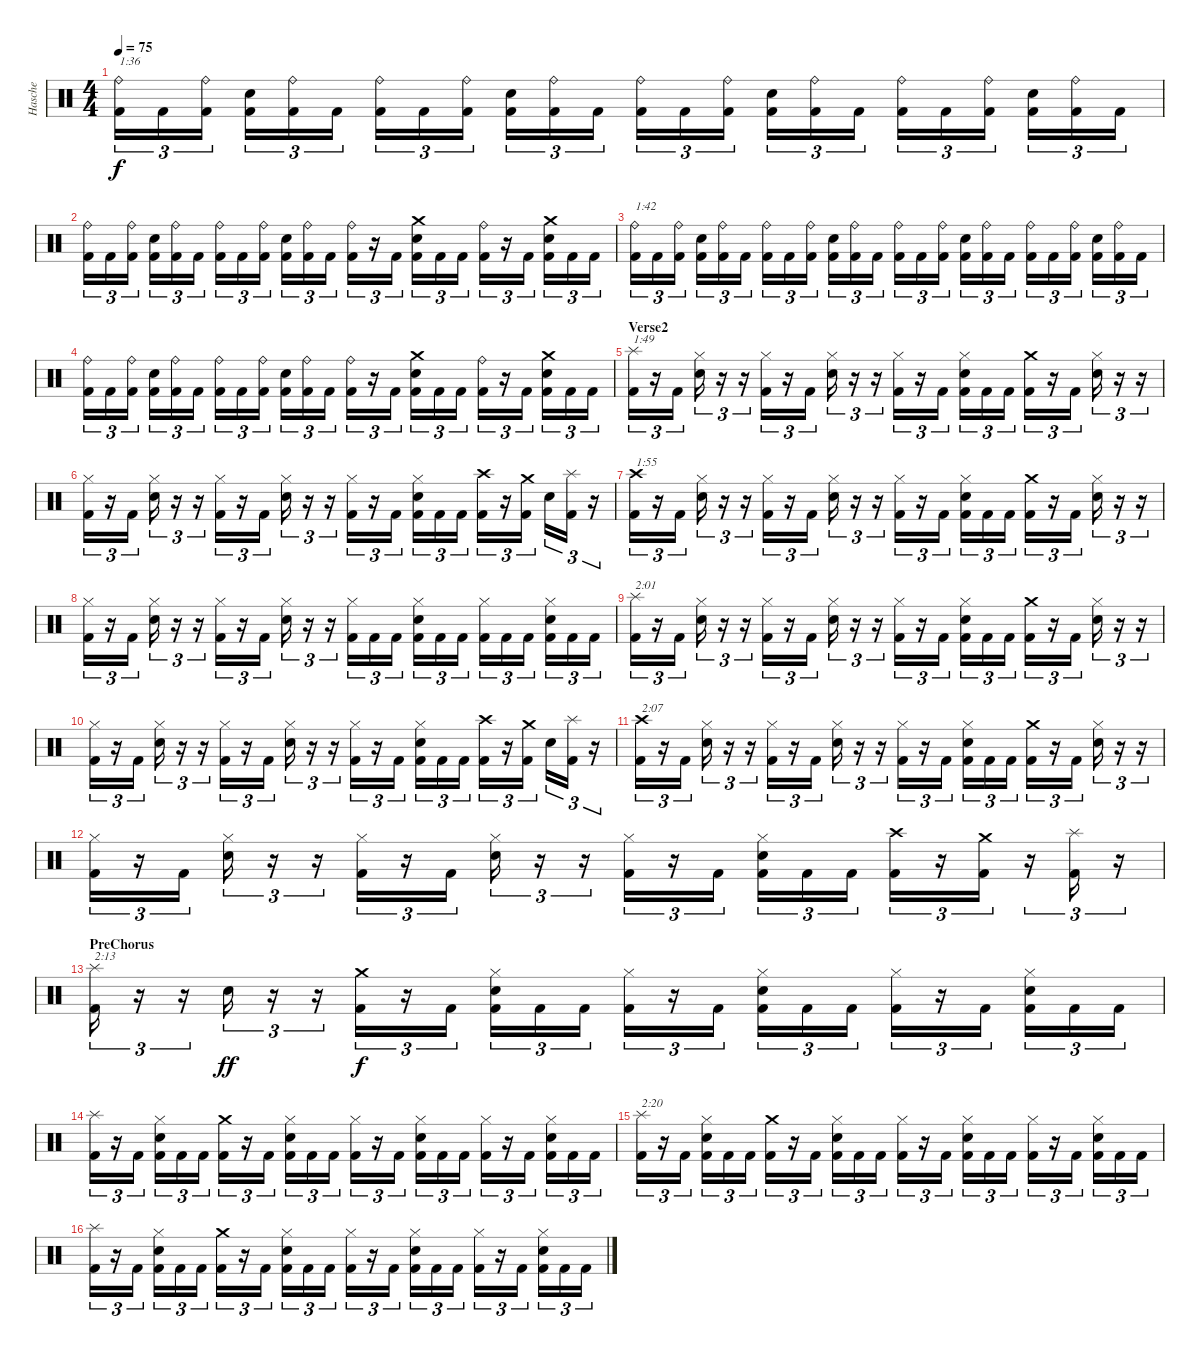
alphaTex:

\track ("Hasche" "Hasche") {instrument percussion}
\staff {score}
\articulation defaults
\ts (4 4)
\tempo 75
\clef neutral
\ks c
("Ride (bell)" "Kick (hit) 2").16{tu (3 2) txt "1:36" dy f} "Kick (hit) 2".16{tu (3 2)} ("Ride (bell)" "Kick (hit) 2").16{tu (3 2)} ("Snare (hit) 2" "Kick (hit) 2").16{tu (3 2)} ("Ride (bell)" "Kick (hit) 2").16{tu (3 2)} "Kick (hit) 2".16{tu (3 2)} ("Ride (bell)" "Kick (hit) 2").16{tu (3 2)} "Kick (hit) 2".16{tu (3 2)} ("Ride (bell)" "Kick (hit) 2").16{tu (3 2)} ("Snare (hit) 2" "Kick (hit) 2").16{tu (3 2)} ("Ride (bell)" "Kick (hit) 2").16{tu (3 2)} "Kick (hit) 2".16{tu (3 2)} ("Ride (bell)" "Kick (hit) 2").16{tu (3 2)} "Kick (hit) 2".16{tu (3 2)} ("Ride (bell)" "Kick (hit) 2").16{tu (3 2)} ("Snare (hit) 2" "Kick (hit) 2").16{tu (3 2)} ("Ride (bell)" "Kick (hit) 2").16{tu (3 2)} "Kick (hit) 2".16{tu (3 2)} ("Ride (bell)" "Kick (hit) 2").16{tu (3 2)} "Kick (hit) 2".16{tu (3 2)} ("Ride (bell)" "Kick (hit) 2").16{tu (3 2)} ("Snare (hit) 2" "Kick (hit) 2").16{tu (3 2)} ("Ride (bell)" "Kick (hit) 2").16{tu (3 2)} "Kick (hit) 2".16{tu (3 2)} |
("Ride (bell)" "Kick (hit) 2").16{tu (3 2)} "Kick (hit) 2".16{tu (3 2)} ("Ride (bell)" "Kick (hit) 2").16{tu (3 2)} ("Snare (hit) 2" "Kick (hit) 2").16{tu (3 2)} ("Ride (bell)" "Kick (hit) 2").16{tu (3 2)} "Kick (hit) 2".16{tu (3 2)} ("Ride (bell)" "Kick (hit) 2").16{tu (3 2)} "Kick (hit) 2".16{tu (3 2)} ("Ride (bell)" "Kick (hit) 2").16{tu (3 2)} ("Snare (hit) 2" "Kick (hit) 2").16{tu (3 2)} ("Ride (bell)" "Kick (hit) 2").16{tu (3 2)} "Kick (hit) 2".16{tu (3 2)} ("Ride (bell)" "Kick (hit) 2").16{tu (3 2)} r.16{tu (3 2)} "Kick (hit) 2".16{tu (3 2)} ("Crash medium (hit)" "Snare (hit) 2" "Kick (hit) 2").16{tu (3 2)} "Kick (hit) 2".16{tu (3 2)} "Kick (hit) 2".16{tu (3 2)} ("Ride (bell)" "Kick (hit) 2").16{tu (3 2)} r.16{tu (3 2)} "Kick (hit) 2".16{tu (3 2)} ("Crash medium (hit)" "Snare (hit) 2" "Kick (hit) 2").16{tu (3 2)} "Kick (hit) 2".16{tu (3 2)} "Kick (hit) 2".16{tu (3 2)} |
("Ride (bell)" "Kick (hit) 2").16{tu (3 2) txt "1:42"} "Kick (hit) 2".16{tu (3 2)} ("Ride (bell)" "Kick (hit) 2").16{tu (3 2)} ("Snare (hit) 2" "Kick (hit) 2").16{tu (3 2)} ("Ride (bell)" "Kick (hit) 2").16{tu (3 2)} "Kick (hit) 2".16{tu (3 2)} ("Ride (bell)" "Kick (hit) 2").16{tu (3 2)} "Kick (hit) 2".16{tu (3 2)} ("Ride (bell)" "Kick (hit) 2").16{tu (3 2)} ("Snare (hit) 2" "Kick (hit) 2").16{tu (3 2)} ("Ride (bell)" "Kick (hit) 2").16{tu (3 2)} "Kick (hit) 2".16{tu (3 2)} ("Ride (bell)" "Kick (hit) 2").16{tu (3 2)} "Kick (hit) 2".16{tu (3 2)} ("Ride (bell)" "Kick (hit) 2").16{tu (3 2)} ("Snare (hit) 2" "Kick (hit) 2").16{tu (3 2)} ("Ride (bell)" "Kick (hit) 2").16{tu (3 2)} "Kick (hit) 2".16{tu (3 2)} ("Ride (bell)" "Kick (hit) 2").16{tu (3 2)} "Kick (hit) 2".16{tu (3 2)} ("Ride (bell)" "Kick (hit) 2").16{tu (3 2)} ("Snare (hit) 2" "Kick (hit) 2").16{tu (3 2)} ("Ride (bell)" "Kick (hit) 2").16{tu (3 2)} "Kick (hit) 2".16{tu (3 2)} |
("Ride (bell)" "Kick (hit) 2").16{tu (3 2)} "Kick (hit) 2".16{tu (3 2)} ("Ride (bell)" "Kick (hit) 2").16{tu (3 2)} ("Snare (hit) 2" "Kick (hit) 2").16{tu (3 2)} ("Ride (bell)" "Kick (hit) 2").16{tu (3 2)} "Kick (hit) 2".16{tu (3 2)} ("Ride (bell)" "Kick (hit) 2").16{tu (3 2)} "Kick (hit) 2".16{tu (3 2)} ("Ride (bell)" "Kick (hit) 2").16{tu (3 2)} ("Snare (hit) 2" "Kick (hit) 2").16{tu (3 2)} ("Ride (bell)" "Kick (hit) 2").16{tu (3 2)} "Kick (hit) 2".16{tu (3 2)} ("Ride (bell)" "Kick (hit) 2").16{tu (3 2)} r.16{tu (3 2)} "Kick (hit) 2".16{tu (3 2)} ("Crash medium (hit)" "Snare (hit) 2" "Kick (hit) 2").16{tu (3 2)} "Kick (hit) 2".16{tu (3 2)} "Kick (hit) 2".16{tu (3 2)} ("Ride (bell)" "Kick (hit) 2").16{tu (3 2)} r.16{tu (3 2)} "Kick (hit) 2".16{tu (3 2)} ("Crash medium (hit)" "Snare (hit) 2" "Kick (hit) 2").16{tu (3 2)} "Kick (hit) 2".16{tu (3 2)} "Kick (hit) 2".16{tu (3 2)} |
\section ("" "Verse2")
("Splash (hit)" "Kick (hit) 2").16{tu (3 2) txt "1:49"} r.16{tu (3 2)} "Kick (hit) 2".16{tu (3 2)} ("Hi-Hat (closed)" "Snare (hit) 2").16{tu (3 2)} r.16{tu (3 2)} r.16{tu (3 2)} ("Hi-Hat (closed)" "Kick (hit) 2").16{tu (3 2)} r.16{tu (3 2)} "Kick (hit) 2".16{tu (3 2)} ("Hi-Hat (closed)" "Snare (hit) 2").16{tu (3 2)} r.16{tu (3 2)} r.16{tu (3 2)} ("Hi-Hat (closed)" "Kick (hit) 2").16{tu (3 2)} r.16{tu (3 2)} "Kick (hit) 2".16{tu (3 2)} ("Hi-Hat (closed)" "Snare (hit) 2" "Kick (hit) 2").16{tu (3 2)} "Kick (hit) 2".16{tu (3 2)} "Kick (hit) 2".16{tu (3 2)} ("Crash medium (hit)" "Kick (hit) 2").16{tu (3 2)} r.16{tu (3 2)} "Kick (hit) 2".16{tu (3 2)} ("Hi-Hat (closed)" "Snare (hit) 2").16{tu (3 2)} r.16{tu (3 2)} r.16{tu (3 2)} |
("Hi-Hat (closed)" "Kick (hit) 2").16{tu (3 2)} r.16{tu (3 2)} "Kick (hit) 2".16{tu (3 2)} ("Hi-Hat (closed)" "Snare (hit) 2").16{tu (3 2)} r.16{tu (3 2)} r.16{tu (3 2)} ("Hi-Hat (closed)" "Kick (hit) 2").16{tu (3 2)} r.16{tu (3 2)} "Kick (hit) 2".16{tu (3 2)} ("Hi-Hat (closed)" "Snare (hit) 2").16{tu (3 2)} r.16{tu (3 2)} r.16{tu (3 2)} ("Hi-Hat (closed)" "Kick (hit) 2").16{tu (3 2)} r.16{tu (3 2)} "Kick (hit) 2".16{tu (3 2)} ("Hi-Hat (closed)" "Snare (hit) 2" "Kick (hit) 2").16{tu (3 2)} "Kick (hit) 2".16{tu (3 2)} "Kick (hit) 2".16{tu (3 2)} ("Crash high (hit)" "Kick (hit) 2").16{tu (3 2)} r.16{tu (3 2)} ("Crash medium (hit)" "Kick (hit) 2").16{tu (3 2)} "Snare (hit) 2".16{tu (3 2)} ("Splash (hit)" "Kick (hit) 2").16{tu (3 2)} r.16{tu (3 2)} |
("Crash high (hit)" "Kick (hit) 2").16{tu (3 2) txt "1:55"} r.16{tu (3 2)} "Kick (hit) 2".16{tu (3 2)} ("Hi-Hat (closed)" "Snare (hit) 2").16{tu (3 2)} r.16{tu (3 2)} r.16{tu (3 2)} ("Hi-Hat (closed)" "Kick (hit) 2").16{tu (3 2)} r.16{tu (3 2)} "Kick (hit) 2".16{tu (3 2)} ("Hi-Hat (closed)" "Snare (hit) 2").16{tu (3 2)} r.16{tu (3 2)} r.16{tu (3 2)} ("Hi-Hat (closed)" "Kick (hit) 2").16{tu (3 2)} r.16{tu (3 2)} "Kick (hit) 2".16{tu (3 2)} ("Hi-Hat (closed)" "Snare (hit) 2" "Kick (hit) 2").16{tu (3 2)} "Kick (hit) 2".16{tu (3 2)} "Kick (hit) 2".16{tu (3 2)} ("Crash medium (hit)" "Kick (hit) 2").16{tu (3 2)} r.16{tu (3 2)} "Kick (hit) 2".16{tu (3 2)} ("Hi-Hat (closed)" "Snare (hit) 2").16{tu (3 2)} r.16{tu (3 2)} r.16{tu (3 2)} |
("Hi-Hat (closed)" "Kick (hit) 2").16{tu (3 2)} r.16{tu (3 2)} "Kick (hit) 2".16{tu (3 2)} ("Hi-Hat (closed)" "Snare (hit) 2").16{tu (3 2)} r.16{tu (3 2)} r.16{tu (3 2)} ("Hi-Hat (closed)" "Kick (hit) 2").16{tu (3 2)} r.16{tu (3 2)} "Kick (hit) 2".16{tu (3 2)} ("Hi-Hat (closed)" "Snare (hit) 2").16{tu (3 2)} r.16{tu (3 2)} r.16{tu (3 2)} ("Hi-Hat (closed)" "Kick (hit) 2").16{tu (3 2)} "Kick (hit) 2".16{tu (3 2)} "Kick (hit) 2".16{tu (3 2)} ("Hi-Hat (closed)" "Snare (hit) 2" "Kick (hit) 2").16{tu (3 2)} "Kick (hit) 2".16{tu (3 2)} "Kick (hit) 2".16{tu (3 2)} ("Hi-Hat (closed)" "Kick (hit) 2").16{tu (3 2)} "Kick (hit) 2".16{tu (3 2)} "Kick (hit) 2".16{tu (3 2)} ("Hi-Hat (closed)" "Snare (hit) 2" "Kick (hit) 2").16{tu (3 2)} "Kick (hit) 2".16{tu (3 2)} "Kick (hit) 2".16{tu (3 2)} |
("Splash (hit)" "Kick (hit) 2").16{tu (3 2) txt "2:01"} r.16{tu (3 2)} "Kick (hit) 2".16{tu (3 2)} ("Hi-Hat (closed)" "Snare (hit) 2").16{tu (3 2)} r.16{tu (3 2)} r.16{tu (3 2)} ("Hi-Hat (closed)" "Kick (hit) 2").16{tu (3 2)} r.16{tu (3 2)} "Kick (hit) 2".16{tu (3 2)} ("Hi-Hat (closed)" "Snare (hit) 2").16{tu (3 2)} r.16{tu (3 2)} r.16{tu (3 2)} ("Hi-Hat (closed)" "Kick (hit) 2").16{tu (3 2)} r.16{tu (3 2)} "Kick (hit) 2".16{tu (3 2)} ("Hi-Hat (closed)" "Snare (hit) 2" "Kick (hit) 2").16{tu (3 2)} "Kick (hit) 2".16{tu (3 2)} "Kick (hit) 2".16{tu (3 2)} ("Crash medium (hit)" "Kick (hit) 2").16{tu (3 2)} r.16{tu (3 2)} "Kick (hit) 2".16{tu (3 2)} ("Hi-Hat (closed)" "Snare (hit) 2").16{tu (3 2)} r.16{tu (3 2)} r.16{tu (3 2)} |
("Hi-Hat (closed)" "Kick (hit) 2").16{tu (3 2)} r.16{tu (3 2)} "Kick (hit) 2".16{tu (3 2)} ("Hi-Hat (closed)" "Snare (hit) 2").16{tu (3 2)} r.16{tu (3 2)} r.16{tu (3 2)} ("Hi-Hat (closed)" "Kick (hit) 2").16{tu (3 2)} r.16{tu (3 2)} "Kick (hit) 2".16{tu (3 2)} ("Hi-Hat (closed)" "Snare (hit) 2").16{tu (3 2)} r.16{tu (3 2)} r.16{tu (3 2)} ("Hi-Hat (closed)" "Kick (hit) 2").16{tu (3 2)} r.16{tu (3 2)} "Kick (hit) 2".16{tu (3 2)} ("Hi-Hat (closed)" "Snare (hit) 2" "Kick (hit) 2").16{tu (3 2)} "Kick (hit) 2".16{tu (3 2)} "Kick (hit) 2".16{tu (3 2)} ("Crash high (hit)" "Kick (hit) 2").16{tu (3 2)} r.16{tu (3 2)} ("Crash medium (hit)" "Kick (hit) 2").16{tu (3 2)} "Snare (hit) 2".16{tu (3 2)} ("Splash (hit)" "Kick (hit) 2").16{tu (3 2)} r.16{tu (3 2)} |
("Crash high (hit)" "Kick (hit) 2").16{tu (3 2) txt "2:07"} r.16{tu (3 2)} "Kick (hit) 2".16{tu (3 2)} ("Hi-Hat (closed)" "Snare (hit) 2").16{tu (3 2)} r.16{tu (3 2)} r.16{tu (3 2)} ("Hi-Hat (closed)" "Kick (hit) 2").16{tu (3 2)} r.16{tu (3 2)} "Kick (hit) 2".16{tu (3 2)} ("Hi-Hat (closed)" "Snare (hit) 2").16{tu (3 2)} r.16{tu (3 2)} r.16{tu (3 2)} ("Hi-Hat (closed)" "Kick (hit) 2").16{tu (3 2)} r.16{tu (3 2)} "Kick (hit) 2".16{tu (3 2)} ("Hi-Hat (closed)" "Snare (hit) 2" "Kick (hit) 2").16{tu (3 2)} "Kick (hit) 2".16{tu (3 2)} "Kick (hit) 2".16{tu (3 2)} ("Crash medium (hit)" "Kick (hit) 2").16{tu (3 2)} r.16{tu (3 2)} "Kick (hit) 2".16{tu (3 2)} ("Hi-Hat (closed)" "Snare (hit) 2").16{tu (3 2)} r.16{tu (3 2)} r.16{tu (3 2)} |
("Hi-Hat (closed)" "Kick (hit) 2").16{tu (3 2)} r.16{tu (3 2)} "Kick (hit) 2".16{tu (3 2)} ("Hi-Hat (closed)" "Snare (hit) 2").16{tu (3 2)} r.16{tu (3 2)} r.16{tu (3 2)} ("Hi-Hat (closed)" "Kick (hit) 2").16{tu (3 2)} r.16{tu (3 2)} "Kick (hit) 2".16{tu (3 2)} ("Hi-Hat (closed)" "Snare (hit) 2").16{tu (3 2)} r.16{tu (3 2)} r.16{tu (3 2)} ("Hi-Hat (closed)" "Kick (hit) 2").16{tu (3 2)} r.16{tu (3 2)} "Kick (hit) 2".16{tu (3 2)} ("Hi-Hat (closed)" "Snare (hit) 2" "Kick (hit) 2").16{tu (3 2)} "Kick (hit) 2".16{tu (3 2)} "Kick (hit) 2".16{tu (3 2)} ("Crash high (hit)" "Kick (hit) 2").16{tu (3 2)} r.16{tu (3 2)} ("Crash medium (hit)" "Kick (hit) 2").16{tu (3 2)} r.16{tu (3 2)} ("Splash (hit)" "Kick (hit) 2").16{tu (3 2)} r.16{tu (3 2)} |
\section ("" "PreChorus")
("Splash (hit)" "Kick (hit) 2").16{tu (3 2) txt "2:13"} r.16{tu (3 2)} r.16{tu (3 2)} "Snare (hit) 2".16{tu (3 2) dy ff} r.16{tu (3 2)} r.16{tu (3 2)} ("Crash medium (hit)" "Kick (hit) 2").16{tu (3 2) dy f} r.16{tu (3 2)} "Kick (hit) 2".16{tu (3 2)} ("Hi-Hat (closed)" "Snare (hit) 2" "Kick (hit) 2").16{tu (3 2)} "Kick (hit) 2".16{tu (3 2)} "Kick (hit) 2".16{tu (3 2)} ("Hi-Hat (closed)" "Kick (hit) 2").16{tu (3 2)} r.16{tu (3 2)} "Kick (hit) 2".16{tu (3 2)} ("Hi-Hat (closed)" "Snare (hit) 2" "Kick (hit) 2").16{tu (3 2)} "Kick (hit) 2".16{tu (3 2)} "Kick (hit) 2".16{tu (3 2)} ("Hi-Hat (closed)" "Kick (hit) 2").16{tu (3 2)} r.16{tu (3 2)} "Kick (hit) 2".16{tu (3 2)} ("Hi-Hat (closed)" "Snare (hit) 2" "Kick (hit) 2").16{tu (3 2)} "Kick (hit) 2".16{tu (3 2)} "Kick (hit) 2".16{tu (3 2)} |
("Splash (hit)" "Kick (hit) 2").16{tu (3 2)} r.16{tu (3 2)} "Kick (hit) 2".16{tu (3 2)} ("Hi-Hat (closed)" "Snare (hit) 2" "Kick (hit) 2").16{tu (3 2)} "Kick (hit) 2".16{tu (3 2)} "Kick (hit) 2".16{tu (3 2)} ("Crash medium (hit)" "Kick (hit) 2").16{tu (3 2)} r.16{tu (3 2)} "Kick (hit) 2".16{tu (3 2)} ("Hi-Hat (closed)" "Snare (hit) 2" "Kick (hit) 2").16{tu (3 2)} "Kick (hit) 2".16{tu (3 2)} "Kick (hit) 2".16{tu (3 2)} ("Hi-Hat (closed)" "Kick (hit) 2").16{tu (3 2)} r.16{tu (3 2)} "Kick (hit) 2".16{tu (3 2)} ("Hi-Hat (closed)" "Snare (hit) 2" "Kick (hit) 2").16{tu (3 2)} "Kick (hit) 2".16{tu (3 2)} "Kick (hit) 2".16{tu (3 2)} ("Hi-Hat (closed)" "Kick (hit) 2").16{tu (3 2)} r.16{tu (3 2)} "Kick (hit) 2".16{tu (3 2)} ("Hi-Hat (closed)" "Snare (hit) 2" "Kick (hit) 2").16{tu (3 2)} "Kick (hit) 2".16{tu (3 2)} "Kick (hit) 2".16{tu (3 2)} |
("Splash (hit)" "Kick (hit) 2").16{tu (3 2) txt "2:20"} r.16{tu (3 2)} "Kick (hit) 2".16{tu (3 2)} ("Hi-Hat (closed)" "Snare (hit) 2" "Kick (hit) 2").16{tu (3 2)} "Kick (hit) 2".16{tu (3 2)} "Kick (hit) 2".16{tu (3 2)} ("Crash medium (hit)" "Kick (hit) 2").16{tu (3 2)} r.16{tu (3 2)} "Kick (hit) 2".16{tu (3 2)} ("Hi-Hat (closed)" "Snare (hit) 2" "Kick (hit) 2").16{tu (3 2)} "Kick (hit) 2".16{tu (3 2)} "Kick (hit) 2".16{tu (3 2)} ("Hi-Hat (closed)" "Kick (hit) 2").16{tu (3 2)} r.16{tu (3 2)} "Kick (hit) 2".16{tu (3 2)} ("Hi-Hat (closed)" "Snare (hit) 2" "Kick (hit) 2").16{tu (3 2)} "Kick (hit) 2".16{tu (3 2)} "Kick (hit) 2".16{tu (3 2)} ("Hi-Hat (closed)" "Kick (hit) 2").16{tu (3 2)} r.16{tu (3 2)} "Kick (hit) 2".16{tu (3 2)} ("Hi-Hat (closed)" "Snare (hit) 2" "Kick (hit) 2").16{tu (3 2)} "Kick (hit) 2".16{tu (3 2)} "Kick (hit) 2".16{tu (3 2)} |
("Splash (hit)" "Kick (hit) 2").16{tu (3 2)} r.16{tu (3 2)} "Kick (hit) 2".16{tu (3 2)} ("Hi-Hat (closed)" "Snare (hit) 2" "Kick (hit) 2").16{tu (3 2)} "Kick (hit) 2".16{tu (3 2)} "Kick (hit) 2".16{tu (3 2)} ("Crash medium (hit)" "Kick (hit) 2").16{tu (3 2)} r.16{tu (3 2)} "Kick (hit) 2".16{tu (3 2)} ("Hi-Hat (closed)" "Snare (hit) 2" "Kick (hit) 2").16{tu (3 2)} "Kick (hit) 2".16{tu (3 2)} "Kick (hit) 2".16{tu (3 2)} ("Hi-Hat (closed)" "Kick (hit) 2").16{tu (3 2)} r.16{tu (3 2)} "Kick (hit) 2".16{tu (3 2)} ("Hi-Hat (closed)" "Snare (hit) 2" "Kick (hit) 2").16{tu (3 2)} "Kick (hit) 2".16{tu (3 2)} "Kick (hit) 2".16{tu (3 2)} ("Hi-Hat (closed)" "Kick (hit) 2").16{tu (3 2)} r.16{tu (3 2)} "Kick (hit) 2".16{tu (3 2)} ("Hi-Hat (closed)" "Snare (hit) 2" "Kick (hit) 2").16{tu (3 2)} "Kick (hit) 2".16{tu (3 2)} "Kick (hit) 2".16{tu (3 2)}
